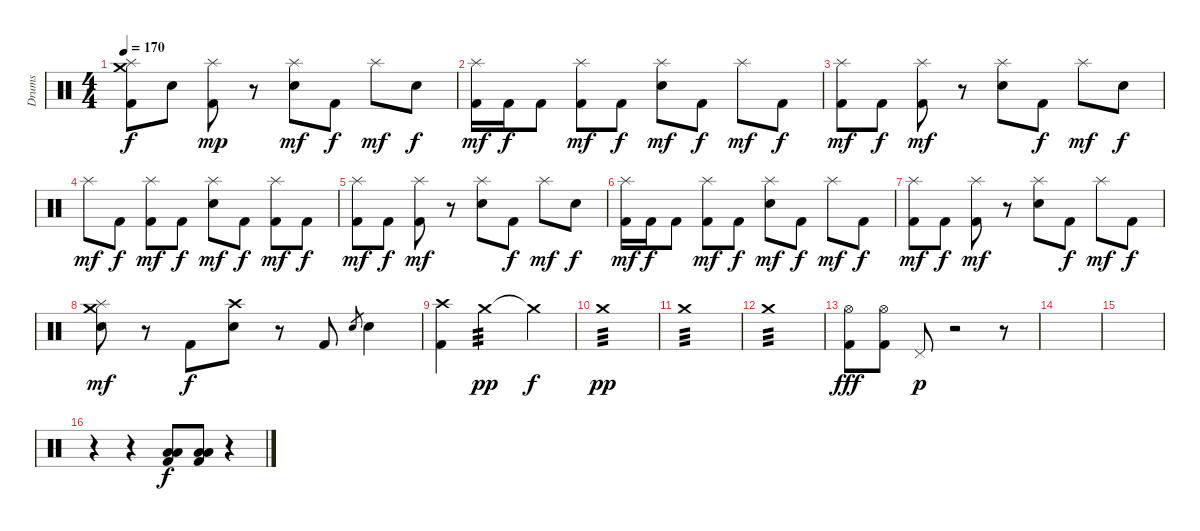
\track ("Drums" "Drums") {instrument percussion}
\staff {score}
\articulation defaults
\ts (4 4)
\tempo 170
\clef neutral
\ks c
("Crash medium (hit)" "Splash (hit)" "Kick (hit) 2").8{dy f} "Electric Snare (hit)".8 ("Splash (hit)" "Kick (hit) 2").8{dy mp} r.8 ("Splash (hit)" "Electric Snare (hit)").8{dy mf} "Kick (hit) 2".8{dy f} "Splash (hit)".8{dy mf} "Electric Snare (hit)".8{dy f} |
("Splash (hit)" "Kick (hit) 2").16{dy mf} "Kick (hit) 2".16{dy f} "Kick (hit) 2".8 ("Splash (hit)" "Kick (hit) 2").8{dy mf} "Kick (hit) 2".8{dy f} ("Splash (hit)" "Electric Snare (hit)").8{dy mf} "Kick (hit) 2".8{dy f} "Splash (hit)".8{dy mf} "Kick (hit) 2".8{dy f} |
("Splash (hit)" "Kick (hit) 2").8{dy mf} "Kick (hit) 2".8{dy f} ("Splash (hit)" "Kick (hit) 2").8{dy mf} r.8 ("Splash (hit)" "Electric Snare (hit)").8 "Kick (hit) 2".8{dy f} "Splash (hit)".8{dy mf} "Electric Snare (hit)".8{dy f} |
"Splash (hit)".8{dy mf} "Kick (hit) 2".8{dy f} ("Splash (hit)" "Kick (hit) 2").8{dy mf} "Kick (hit) 2".8{dy f} ("Splash (hit)" "Electric Snare (hit)").8{dy mf} "Kick (hit) 2".8{dy f} ("Splash (hit)" "Kick (hit) 2").8{dy mf} "Kick (hit) 2".8{dy f} |
("Splash (hit)" "Kick (hit) 2").8{dy mf} "Kick (hit) 2".8{dy f} ("Splash (hit)" "Kick (hit) 2").8{dy mf} r.8 ("Splash (hit)" "Electric Snare (hit)").8 "Kick (hit) 2".8{dy f} "Splash (hit)".8{dy mf} "Electric Snare (hit)".8{dy f} |
("Splash (hit)" "Kick (hit) 2").16{dy mf} "Kick (hit) 2".16{dy f} "Kick (hit) 2".8 ("Splash (hit)" "Kick (hit) 2").8{dy mf} "Kick (hit) 2".8{dy f} ("Splash (hit)" "Electric Snare (hit)").8{dy mf} "Kick (hit) 2".8{dy f} "Splash (hit)".8{dy mf} "Kick (hit) 2".8{dy f} |
("Splash (hit)" "Kick (hit) 2").8{dy mf} "Kick (hit) 2".8{dy f} ("Splash (hit)" "Kick (hit) 2").8{dy mf} r.8 ("Splash (hit)" "Electric Snare (hit)").8 "Kick (hit) 2".8{dy f} "Splash (hit)".8{dy mf} "Kick (hit) 2".8{dy f} |
("Crash medium (hit)" "Splash (hit)" "Electric Snare (hit)").8{dy mf} r.8 "Kick (hit) 2".8{dy f} ("Crash high (hit)" "Electric Snare (hit)").8 r.8 "Kick (hit) 2".8 "Electric Snare (hit)".8{gr} "Electric Snare (hit)".4 |
("Crash high (hit)" "Kick (hit) 2").4 "Crash medium (hit)".2{tp 3 dy pp} "Crash medium (hit)"{t}.4{dy f} |
"Crash medium (hit)".1{tp 3 dy pp} |
"Crash medium (hit)".1{tp 3} |
"Crash medium (hit)".1{tp 3} |
("Hi-Hat (open)" "Kick (hit) 2").8{dy fff} ("Hi-Hat (open)" "Kick (hit) 2").8 "Pedal Hi-Hat (hit)".8{dy p} r.2 r.8 |
|
|
r.4 r.4 ("Low Tom (hit)" "Low Floor Tom (hit)" "Kick (hit) 2").8{dy f} ("Low Tom (hit)" "Low Floor Tom (hit)" "Kick (hit) 2").8 r.4
